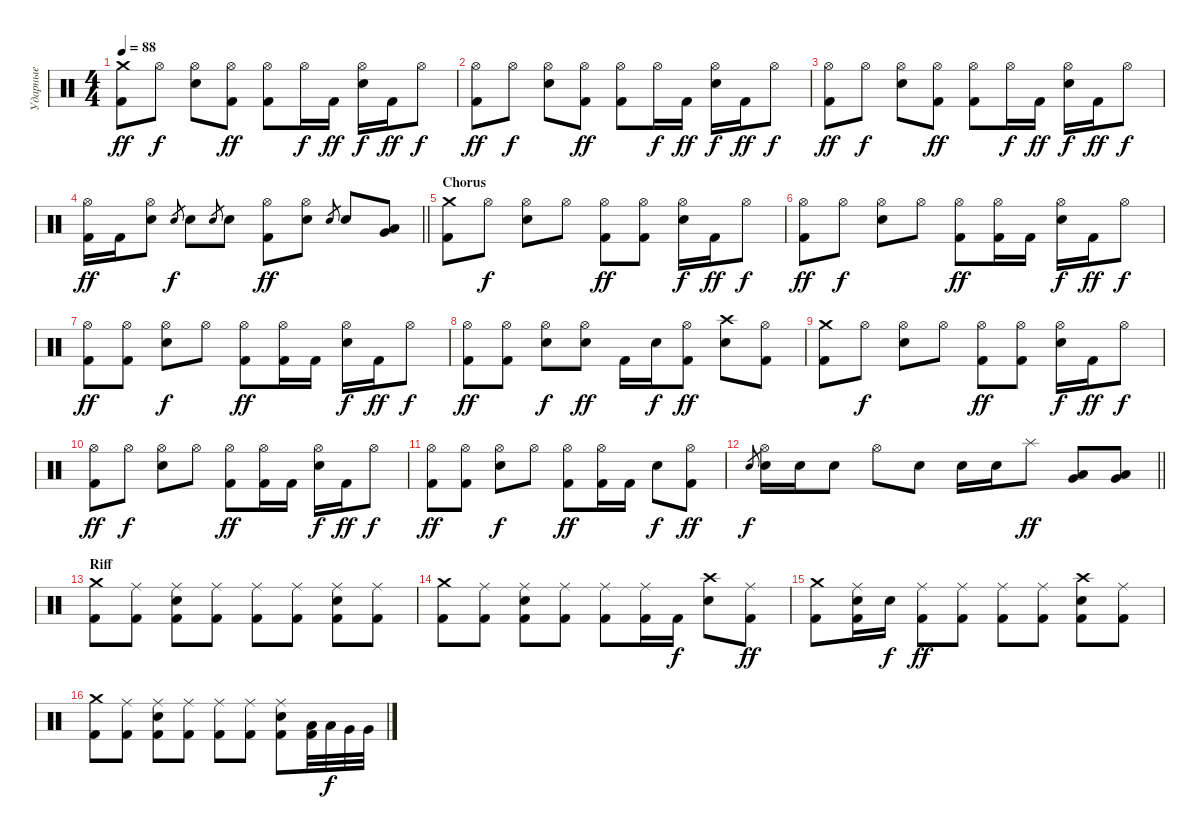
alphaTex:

\track ("Ударные" "Ударные") {instrument percussion}
\staff {score}
\articulation defaults
\ts (4 4)
\tempo 88
\clef neutral
\ks c
("Kick (hit) 2" "Crash medium (hit)").8{dy ff} "Hi-Hat (open)".8{dy f} ("Electric Snare (hit)" "Hi-Hat (open)").8 ("Kick (hit) 2" "Hi-Hat (open)").8{dy ff} ("Kick (hit) 2" "Hi-Hat (open)").8 "Hi-Hat (open)".16{dy f} "Kick (hit) 2".16{dy ff} ("Electric Snare (hit)" "Hi-Hat (open)").16{dy f} "Kick (hit) 2".16{dy ff} "Hi-Hat (open)".8{dy f} |
("Kick (hit) 2" "Hi-Hat (open)").8{dy ff} "Hi-Hat (open)".8{dy f} ("Electric Snare (hit)" "Hi-Hat (open)").8 ("Kick (hit) 2" "Hi-Hat (open)").8{dy ff} ("Kick (hit) 2" "Hi-Hat (open)").8 "Hi-Hat (open)".16{dy f} "Kick (hit) 2".16{dy ff} ("Electric Snare (hit)" "Hi-Hat (open)").16{dy f} "Kick (hit) 2".16{dy ff} "Hi-Hat (open)".8{dy f} |
("Kick (hit) 2" "Hi-Hat (open)").8{dy ff} "Hi-Hat (open)".8{dy f} ("Electric Snare (hit)" "Hi-Hat (open)").8 ("Kick (hit) 2" "Hi-Hat (open)").8{dy ff} ("Kick (hit) 2" "Hi-Hat (open)").8 "Hi-Hat (open)".16{dy f} "Kick (hit) 2".16{dy ff} ("Electric Snare (hit)" "Hi-Hat (open)").16{dy f} "Kick (hit) 2".16{dy ff} "Hi-Hat (open)".8{dy f} |
\barLineRight lightlight
("Kick (hit) 2" "Hi-Hat (open)").16{dy ff} "Kick (hit) 2".16 ("Electric Snare (hit)" "Hi-Hat (open)").8 "Electric Snare (hit)".8{gr dy f} "Electric Snare (hit)".8 "Electric Snare (hit)".8{gr} "Electric Snare (hit)".8 ("Kick (hit) 2" "Hi-Hat (open)").8{dy ff} ("Electric Snare (hit)" "Hi-Hat (open)").8 "Electric Snare (hit)".8{gr} "Electric Snare (hit)".8 ("Very Low Tom (hit)" "Low Tom (hit)").8 |
\section ("" "Chorus")
("Kick (hit) 2" "Crash medium (hit)").8 "Hi-Hat (open)".8{dy f} ("Electric Snare (hit)" "Hi-Hat (open)").8 "Hi-Hat (open)".8 ("Kick (hit) 2" "Hi-Hat (open)").8{dy ff} ("Kick (hit) 2" "Hi-Hat (open)").8 ("Electric Snare (hit)" "Hi-Hat (open)").16{dy f} "Kick (hit) 2".16{dy ff} "Hi-Hat (open)".8{dy f} |
("Kick (hit) 2" "Hi-Hat (open)").8{dy ff} "Hi-Hat (open)".8{dy f} ("Electric Snare (hit)" "Hi-Hat (open)").8 "Hi-Hat (open)".8 ("Kick (hit) 2" "Hi-Hat (open)").8{dy ff} ("Kick (hit) 2" "Hi-Hat (open)").16 "Kick (hit) 2".16 ("Electric Snare (hit)" "Hi-Hat (open)").16{dy f} "Kick (hit) 2".16{dy ff} "Hi-Hat (open)".8{dy f} |
("Kick (hit) 2" "Hi-Hat (open)").8{dy ff} ("Kick (hit) 2" "Hi-Hat (open)").8 ("Electric Snare (hit)" "Hi-Hat (open)").8{dy f} "Hi-Hat (open)".8 ("Kick (hit) 2" "Hi-Hat (open)").8{dy ff} ("Kick (hit) 2" "Hi-Hat (open)").16 "Kick (hit) 2".16 ("Electric Snare (hit)" "Hi-Hat (open)").16{dy f} "Kick (hit) 2".16{dy ff} "Hi-Hat (open)".8{dy f} |
("Kick (hit) 2" "Hi-Hat (open)").8{dy ff} ("Kick (hit) 2" "Hi-Hat (open)").8 ("Electric Snare (hit)" "Hi-Hat (open)").8{dy f} ("Electric Snare (hit)" "Hi-Hat (open)").8{dy ff} "Kick (hit) 2".16 "Electric Snare (hit)".16{dy f} ("Kick (hit) 2" "Hi-Hat (open)").8{dy ff} ("Electric Snare (hit)" "Crash high (hit)").8 ("Kick (hit) 2" "Hi-Hat (open)").8 |
("Kick (hit) 2" "Crash medium (hit)").8 "Hi-Hat (open)".8{dy f} ("Electric Snare (hit)" "Hi-Hat (open)").8 "Hi-Hat (open)".8 ("Kick (hit) 2" "Hi-Hat (open)").8{dy ff} ("Kick (hit) 2" "Hi-Hat (open)").8 ("Electric Snare (hit)" "Hi-Hat (open)").16{dy f} "Kick (hit) 2".16{dy ff} "Hi-Hat (open)".8{dy f} |
("Kick (hit) 2" "Hi-Hat (open)").8{dy ff} "Hi-Hat (open)".8{dy f} ("Electric Snare (hit)" "Hi-Hat (open)").8 "Hi-Hat (open)".8 ("Kick (hit) 2" "Hi-Hat (open)").8{dy ff} ("Kick (hit) 2" "Hi-Hat (open)").16 "Kick (hit) 2".16 ("Electric Snare (hit)" "Hi-Hat (open)").16{dy f} "Kick (hit) 2".16{dy ff} "Hi-Hat (open)".8{dy f} |
("Kick (hit) 2" "Hi-Hat (open)").8{dy ff} ("Kick (hit) 2" "Hi-Hat (open)").8 ("Electric Snare (hit)" "Hi-Hat (open)").8{dy f} "Hi-Hat (open)".8 ("Kick (hit) 2" "Hi-Hat (open)").8{dy ff} ("Kick (hit) 2" "Hi-Hat (open)").16 "Kick (hit) 2".16 "Electric Snare (hit)".8{dy f} ("Kick (hit) 2" "Hi-Hat (open)").8{dy ff} |
\barLineRight lightlight "Electric Snare (hit)".8{gr dy f}
("Electric Snare (hit)" "Hi-Hat (open)").16 "Electric Snare (hit)".16 "Electric Snare (hit)".8 "Hi-Hat (open)".8 "Electric Snare (hit)".8 "Electric Snare (hit)".16 "Electric Snare (hit)".16 "Splash (hit)".8{dy ff} ("Very Low Tom (hit)" "Low Tom (hit)").8 ("Very Low Tom (hit)" "Low Tom (hit)").8 |
\section ("" "Riff")
("Kick (hit) 2" "Crash medium (hit)").8 ("Kick (hit) 2" "Ride (middle)").8 ("Kick (hit) 2" "Electric Snare (hit)" "Ride (middle)").8 ("Kick (hit) 2" "Ride (middle)").8 ("Kick (hit) 2" "Ride (middle)").8 ("Kick (hit) 2" "Ride (middle)").8 ("Kick (hit) 2" "Electric Snare (hit)" "Ride (middle)").8 ("Kick (hit) 2" "Ride (middle)").8 |
("Kick (hit) 2" "Crash medium (hit)").8 ("Kick (hit) 2" "Ride (middle)").8 ("Kick (hit) 2" "Electric Snare (hit)" "Ride (middle)").8 ("Kick (hit) 2" "Ride (middle)").8 ("Kick (hit) 2" "Ride (middle)").8 ("Kick (hit) 2" "Ride (middle)").16 "Kick (hit) 2".16{dy f} ("Electric Snare (hit)" "Crash high (hit)").8 ("Kick (hit) 2" "Ride (middle)").8{dy ff} |
("Kick (hit) 2" "Crash medium (hit)").8 ("Kick (hit) 2" "Electric Snare (hit)" "Ride (middle)").16 "Electric Snare (hit)".16{dy f} ("Kick (hit) 2" "Ride (middle)").8{dy ff} ("Kick (hit) 2" "Ride (middle)").8 ("Kick (hit) 2" "Ride (middle)").8 ("Kick (hit) 2" "Ride (middle)").8 ("Kick (hit) 2" "Electric Snare (hit)" "Crash high (hit)").8 ("Kick (hit) 2" "Ride (middle)").8 |
("Kick (hit) 2" "Crash medium (hit)").8 ("Kick (hit) 2" "Ride (middle)").8 ("Kick (hit) 2" "Electric Snare (hit)" "Ride (middle)").8 ("Kick (hit) 2" "Ride (middle)").8 ("Kick (hit) 2" "Ride (middle)").8 ("Kick (hit) 2" "Ride (middle)").8 ("Kick (hit) 2" "Electric Snare (hit)" "Ride (middle)").8 ("Kick (hit) 2" "Low Tom (hit)").32 "Low Tom (hit)".32{dy f} "Very Low Tom (hit)".32 "Very Low Tom (hit)".32
